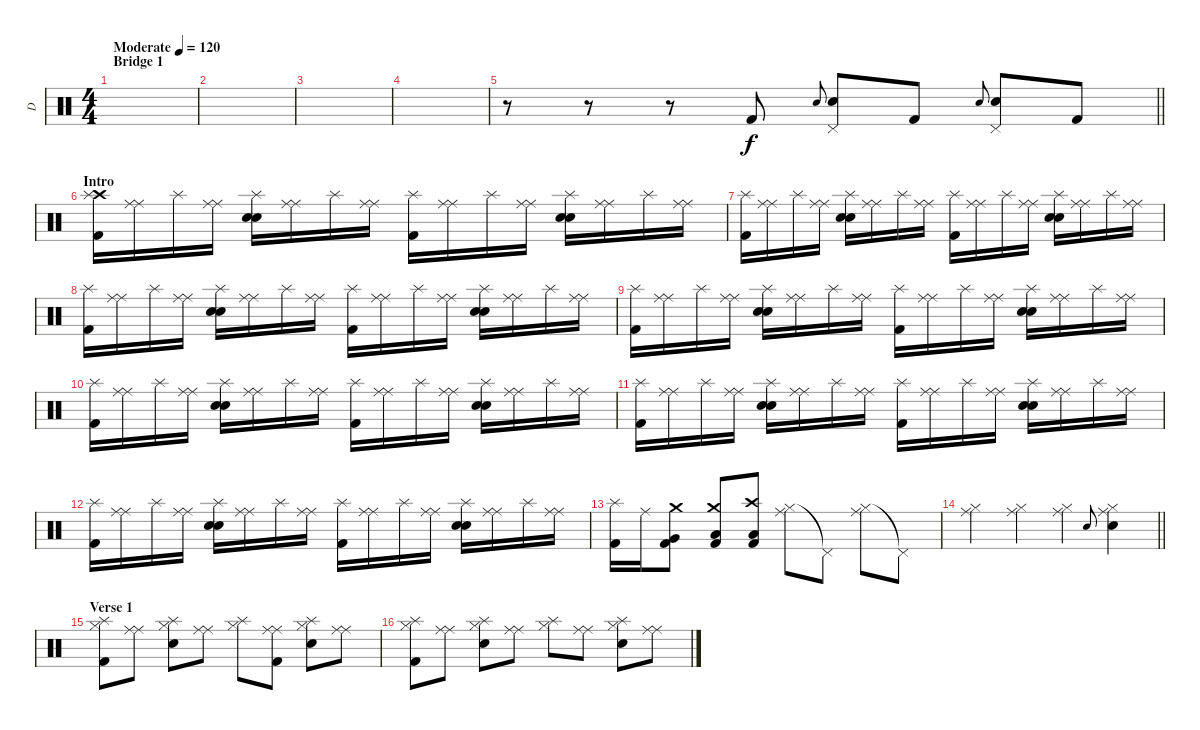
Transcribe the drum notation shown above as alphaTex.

\track ("D" "D") {instrument percussion}
\staff {score}
\articulation defaults
\ts (4 4)
\section ("" "Bridge 1")
\tempo (120 "Moderate")
\clef neutral
\ks c
|
|
|
|
\barLineRight lightlight
r.8 r.8 r.8 "Kick (hit) 2".8 "Electric Snare (hit)".8{gr onbeat} ("Electric Snare (hit)" "Pedal Hi-Hat (hit)").8 "Kick (hit) 2".8 "Electric Snare (hit)".8{gr onbeat} ("Electric Snare (hit)" "Pedal Hi-Hat (hit)").8 "Kick (hit) 2".8 |
\section ("" "Intro")
("Crash high (hit)" "Kick (hit) 2" "Splash (hit)").16 ("Ride (middle)" "Ride (middle)").16 "Splash (hit)".16 ("Ride (middle)" "Ride (middle)").16 ("Electric Snare (hit)" "Electric Snare (hit)" "Splash (hit)").16 ("Ride (middle)" "Ride (middle)").16 "Splash (hit)".16 ("Ride (middle)" "Ride (middle)").16 ("Kick (hit) 2" "Splash (hit)").16 ("Ride (middle)" "Ride (middle)").16 "Splash (hit)".16 ("Ride (middle)" "Ride (middle)").16 ("Electric Snare (hit)" "Electric Snare (hit)" "Splash (hit)").16 ("Ride (middle)" "Ride (middle)").16 "Splash (hit)".16 ("Ride (middle)" "Ride (middle)").16 |
("Kick (hit) 2" "Splash (hit)").16 ("Ride (middle)" "Ride (middle)").16 "Splash (hit)".16 ("Ride (middle)" "Ride (middle)").16 ("Electric Snare (hit)" "Electric Snare (hit)" "Splash (hit)").16 ("Ride (middle)" "Ride (middle)").16 "Splash (hit)".16 ("Ride (middle)" "Ride (middle)").16 ("Kick (hit) 2" "Splash (hit)").16 ("Ride (middle)" "Ride (middle)").16 "Splash (hit)".16 ("Ride (middle)" "Ride (middle)").16 ("Electric Snare (hit)" "Electric Snare (hit)" "Splash (hit)").16 ("Ride (middle)" "Ride (middle)").16 "Splash (hit)".16 ("Ride (middle)" "Ride (middle)").16 |
("Kick (hit) 2" "Splash (hit)").16 ("Ride (middle)" "Ride (middle)").16 "Splash (hit)".16 ("Ride (middle)" "Ride (middle)").16 ("Electric Snare (hit)" "Electric Snare (hit)" "Splash (hit)").16 ("Ride (middle)" "Ride (middle)").16 "Splash (hit)".16 ("Ride (middle)" "Ride (middle)").16 ("Kick (hit) 2" "Splash (hit)").16 ("Ride (middle)" "Ride (middle)").16 "Splash (hit)".16 ("Ride (middle)" "Ride (middle)").16 ("Electric Snare (hit)" "Electric Snare (hit)" "Splash (hit)").16 ("Ride (middle)" "Ride (middle)").16 "Splash (hit)".16 ("Ride (middle)" "Ride (middle)").16 |
("Kick (hit) 2" "Splash (hit)").16 ("Ride (middle)" "Ride (middle)").16 "Splash (hit)".16 ("Ride (middle)" "Ride (middle)").16 ("Electric Snare (hit)" "Electric Snare (hit)" "Splash (hit)").16 ("Ride (middle)" "Ride (middle)").16 "Splash (hit)".16 ("Ride (middle)" "Ride (middle)").16 ("Kick (hit) 2" "Splash (hit)").16 ("Ride (middle)" "Ride (middle)").16 "Splash (hit)".16 ("Ride (middle)" "Ride (middle)").16 ("Electric Snare (hit)" "Electric Snare (hit)" "Splash (hit)").16 ("Ride (middle)" "Ride (middle)").16 "Splash (hit)".16 ("Ride (middle)" "Ride (middle)").16 |
("Kick (hit) 2" "Splash (hit)").16 ("Ride (middle)" "Ride (middle)").16 "Splash (hit)".16 ("Ride (middle)" "Ride (middle)").16 ("Electric Snare (hit)" "Electric Snare (hit)" "Splash (hit)").16 ("Ride (middle)" "Ride (middle)").16 "Splash (hit)".16 ("Ride (middle)" "Ride (middle)").16 ("Kick (hit) 2" "Splash (hit)").16 ("Ride (middle)" "Ride (middle)").16 "Splash (hit)".16 ("Ride (middle)" "Ride (middle)").16 ("Electric Snare (hit)" "Electric Snare (hit)" "Splash (hit)").16 ("Ride (middle)" "Ride (middle)").16 "Splash (hit)".16 ("Ride (middle)" "Ride (middle)").16 |
("Kick (hit) 2" "Splash (hit)").16 ("Ride (middle)" "Ride (middle)").16 "Splash (hit)".16 ("Ride (middle)" "Ride (middle)").16 ("Electric Snare (hit)" "Electric Snare (hit)" "Splash (hit)").16 ("Ride (middle)" "Ride (middle)").16 "Splash (hit)".16 ("Ride (middle)" "Ride (middle)").16 ("Kick (hit) 2" "Splash (hit)").16 ("Ride (middle)" "Ride (middle)").16 "Splash (hit)".16 ("Ride (middle)" "Ride (middle)").16 ("Electric Snare (hit)" "Electric Snare (hit)" "Splash (hit)").16 ("Ride (middle)" "Ride (middle)").16 "Splash (hit)".16 ("Ride (middle)" "Ride (middle)").16 |
("Kick (hit) 2" "Splash (hit)").16 ("Ride (middle)" "Ride (middle)").16 "Splash (hit)".16 ("Ride (middle)" "Ride (middle)").16 ("Electric Snare (hit)" "Electric Snare (hit)" "Splash (hit)").16 ("Ride (middle)" "Ride (middle)").16 "Splash (hit)".16 ("Ride (middle)" "Ride (middle)").16 ("Kick (hit) 2" "Splash (hit)").16 ("Ride (middle)" "Ride (middle)").16 "Splash (hit)".16 ("Ride (middle)" "Ride (middle)").16 ("Electric Snare (hit)" "Electric Snare (hit)" "Splash (hit)").16 ("Ride (middle)" "Ride (middle)").16 "Splash (hit)".16 ("Ride (middle)" "Ride (middle)").16 |
("Kick (hit) 2" "Splash (hit)").16 "Ride (middle)".16 ("Crash medium (hit)" "Very Low Tom (hit)" "Kick (hit) 2").8 ("Crash medium (hit)" "Low Tom (hit)" "Kick (hit) 2").8 ("Crash high (hit)" "Low Tom (hit)" "Kick (hit) 2").8 ("Hi-Hat (closed)" "Ride (middle)").8 "Pedal Hi-Hat (hit)"{t}.8 ("Hi-Hat (closed)" "Ride (middle)").8 "Pedal Hi-Hat (hit)"{t}.8 |
\barLineRight lightlight
("Hi-Hat (closed)" "Ride (middle)").4 ("Hi-Hat (closed)" "Ride (middle)").4 ("Hi-Hat (closed)" "Ride (middle)").4 "Electric Snare (hit)".8{gr onbeat} ("Electric Snare (hit)" "Hi-Hat (closed)" "Ride (middle)").4 |
\section ("" "Verse 1")
("Kick (hit) 2" "Splash (hit)" "Hi-Hat (closed)").8 ("Ride (middle)" "Ride (middle)").8 ("Electric Snare (hit)" "Splash (hit)" "Hi-Hat (closed)").8 ("Ride (middle)" "Ride (middle)").8 ("Splash (hit)" "Hi-Hat (closed)").8 ("Kick (hit) 2" "Ride (middle)" "Ride (middle)").8 ("Electric Snare (hit)" "Splash (hit)" "Hi-Hat (closed)").8 ("Ride (middle)" "Ride (middle)").8 |
("Kick (hit) 2" "Splash (hit)" "Hi-Hat (closed)").8 ("Ride (middle)" "Ride (middle)").8 ("Electric Snare (hit)" "Splash (hit)" "Hi-Hat (closed)").8 ("Ride (middle)" "Ride (middle)").8 ("Splash (hit)" "Hi-Hat (closed)").8 ("Ride (middle)" "Ride (middle)").8 ("Electric Snare (hit)" "Splash (hit)" "Hi-Hat (closed)").8 ("Ride (middle)" "Ride (middle)").8
